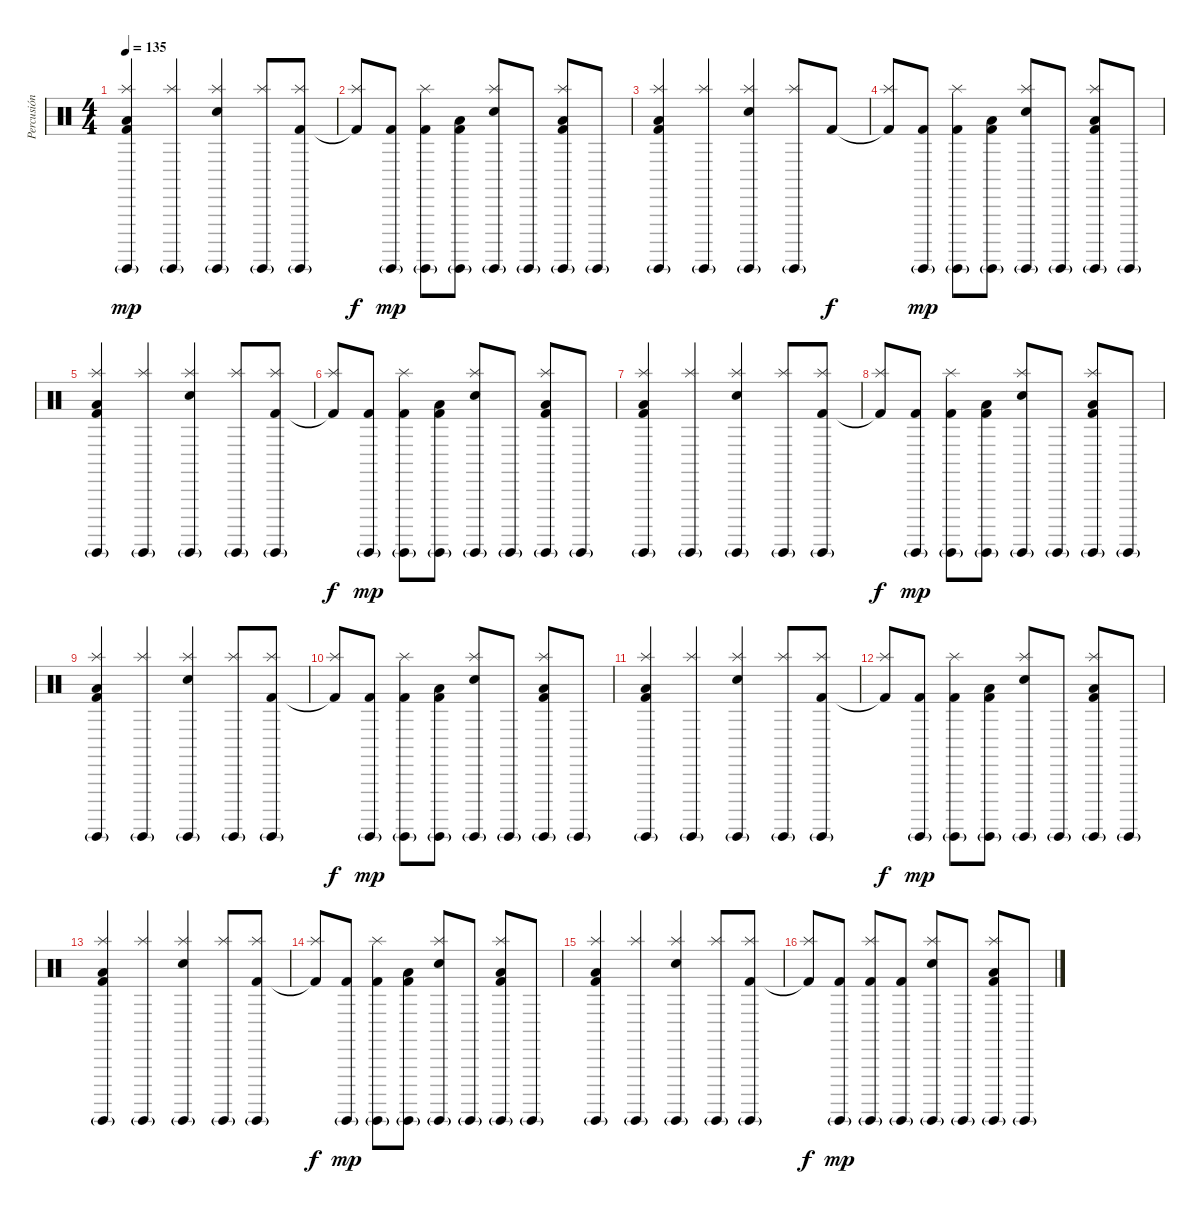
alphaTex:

\track ("Percusión" "Percusión") {instrument percussion}
\staff {score}
\articulation defaults
\ts (4 4)
\tempo 135
\clef neutral
\ks c
("Kick (hit) 2" "Guiro (hit)"{g} "Splash (hit)" "Low Floor Tom (hit)").4{dy mp volume 11} ("Splash (hit)" "Guiro (hit)"{g}).4 ("Snare (hit) 2" "Splash (hit)" "Guiro (hit)"{g}).4 ("Splash (hit)" "Guiro (hit)"{g}).8 ("Kick (hit) 2" "Splash (hit)" "Guiro (hit)"{g}).8 |
("Kick (hit) 2"{t} "Splash (hit)").8{dy f} ("Kick (hit) 2" "Guiro (hit)"{g}).8{dy mp} ("Kick (hit) 2" "Guiro (hit)"{g} "Splash (hit)").8 ("Kick (hit) 2" "Guiro (hit)"{g} "Low Floor Tom (hit)").8 ("Snare (hit) 2" "Guiro (hit)"{g} "Splash (hit)").8 "Guiro (hit)"{g}.8 ("Kick (hit) 2" "Guiro (hit)"{g} "Splash (hit)" "Low Floor Tom (hit)").8 "Guiro (hit)"{g}.8 |
("Kick (hit) 2" "Guiro (hit)"{g} "Splash (hit)" "Low Floor Tom (hit)").4 ("Splash (hit)" "Guiro (hit)"{g}).4 ("Snare (hit) 2" "Splash (hit)" "Guiro (hit)"{g}).4 ("Splash (hit)" "Guiro (hit)"{g}).8 "Kick (hit) 2".8{dy f} |
("Kick (hit) 2"{t} "Splash (hit)").8 ("Kick (hit) 2" "Guiro (hit)"{g}).8{dy mp} ("Kick (hit) 2" "Guiro (hit)"{g} "Splash (hit)").8 ("Kick (hit) 2" "Guiro (hit)"{g} "Low Floor Tom (hit)").8 ("Snare (hit) 2" "Guiro (hit)"{g} "Splash (hit)").8 "Guiro (hit)"{g}.8 ("Kick (hit) 2" "Guiro (hit)"{g} "Splash (hit)" "Low Floor Tom (hit)").8 "Guiro (hit)"{g}.8 |
("Kick (hit) 2" "Guiro (hit)"{g} "Splash (hit)" "Low Floor Tom (hit)").4 ("Splash (hit)" "Guiro (hit)"{g}).4 ("Snare (hit) 2" "Splash (hit)" "Guiro (hit)"{g}).4 ("Splash (hit)" "Guiro (hit)"{g}).8 ("Kick (hit) 2" "Splash (hit)" "Guiro (hit)"{g}).8 |
("Kick (hit) 2"{t} "Splash (hit)").8{dy f} ("Kick (hit) 2" "Guiro (hit)"{g}).8{dy mp} ("Kick (hit) 2" "Guiro (hit)"{g} "Splash (hit)").8 ("Kick (hit) 2" "Guiro (hit)"{g} "Low Floor Tom (hit)").8 ("Snare (hit) 2" "Guiro (hit)"{g} "Splash (hit)").8 "Guiro (hit)"{g}.8 ("Kick (hit) 2" "Guiro (hit)"{g} "Splash (hit)" "Low Floor Tom (hit)").8 "Guiro (hit)"{g}.8 |
("Kick (hit) 2" "Guiro (hit)"{g} "Splash (hit)" "Low Floor Tom (hit)").4 ("Splash (hit)" "Guiro (hit)"{g}).4 ("Snare (hit) 2" "Splash (hit)" "Guiro (hit)"{g}).4 ("Splash (hit)" "Guiro (hit)"{g}).8 ("Kick (hit) 2" "Splash (hit)" "Guiro (hit)"{g}).8 |
("Kick (hit) 2"{t} "Splash (hit)").8{dy f} ("Kick (hit) 2" "Guiro (hit)"{g}).8{dy mp} ("Kick (hit) 2" "Guiro (hit)"{g} "Splash (hit)").8 ("Kick (hit) 2" "Guiro (hit)"{g} "Low Floor Tom (hit)").8 ("Snare (hit) 2" "Guiro (hit)"{g} "Splash (hit)").8 "Guiro (hit)"{g}.8 ("Kick (hit) 2" "Guiro (hit)"{g} "Splash (hit)" "Low Floor Tom (hit)").8 "Guiro (hit)"{g}.8 |
("Kick (hit) 2" "Guiro (hit)"{g} "Splash (hit)" "Low Floor Tom (hit)").4 ("Splash (hit)" "Guiro (hit)"{g}).4 ("Snare (hit) 2" "Splash (hit)" "Guiro (hit)"{g}).4 ("Splash (hit)" "Guiro (hit)"{g}).8 ("Kick (hit) 2" "Splash (hit)" "Guiro (hit)"{g}).8 |
("Kick (hit) 2"{t} "Splash (hit)").8{dy f} ("Kick (hit) 2" "Guiro (hit)"{g}).8{dy mp} ("Kick (hit) 2" "Guiro (hit)"{g} "Splash (hit)").8 ("Kick (hit) 2" "Guiro (hit)"{g} "Low Floor Tom (hit)").8 ("Snare (hit) 2" "Guiro (hit)"{g} "Splash (hit)").8 "Guiro (hit)"{g}.8 ("Kick (hit) 2" "Guiro (hit)"{g} "Splash (hit)" "Low Floor Tom (hit)").8 "Guiro (hit)"{g}.8 |
("Kick (hit) 2" "Guiro (hit)"{g} "Splash (hit)" "Low Floor Tom (hit)").4 ("Splash (hit)" "Guiro (hit)"{g}).4 ("Snare (hit) 2" "Splash (hit)" "Guiro (hit)"{g}).4 ("Splash (hit)" "Guiro (hit)"{g}).8 ("Kick (hit) 2" "Splash (hit)" "Guiro (hit)"{g}).8 |
("Kick (hit) 2"{t} "Splash (hit)").8{dy f} ("Kick (hit) 2" "Guiro (hit)"{g}).8{dy mp} ("Kick (hit) 2" "Guiro (hit)"{g} "Splash (hit)").8 ("Kick (hit) 2" "Guiro (hit)"{g} "Low Floor Tom (hit)").8 ("Snare (hit) 2" "Guiro (hit)"{g} "Splash (hit)").8 "Guiro (hit)"{g}.8 ("Kick (hit) 2" "Guiro (hit)"{g} "Splash (hit)" "Low Floor Tom (hit)").8 "Guiro (hit)"{g}.8 |
("Kick (hit) 2" "Guiro (hit)"{g} "Splash (hit)" "Low Floor Tom (hit)").4 ("Splash (hit)" "Guiro (hit)"{g}).4 ("Snare (hit) 2" "Splash (hit)" "Guiro (hit)"{g}).4 ("Splash (hit)" "Guiro (hit)"{g}).8 ("Kick (hit) 2" "Splash (hit)" "Guiro (hit)"{g}).8 |
("Kick (hit) 2"{t} "Splash (hit)").8{dy f} ("Kick (hit) 2" "Guiro (hit)"{g}).8{dy mp} ("Kick (hit) 2" "Guiro (hit)"{g} "Splash (hit)").8 ("Kick (hit) 2" "Guiro (hit)"{g} "Low Floor Tom (hit)").8 ("Snare (hit) 2" "Guiro (hit)"{g} "Splash (hit)").8 "Guiro (hit)"{g}.8 ("Kick (hit) 2" "Guiro (hit)"{g} "Splash (hit)" "Low Floor Tom (hit)").8 "Guiro (hit)"{g}.8 |
("Kick (hit) 2" "Guiro (hit)"{g} "Splash (hit)" "Low Floor Tom (hit)").4 ("Splash (hit)" "Guiro (hit)"{g}).4 ("Snare (hit) 2" "Splash (hit)" "Guiro (hit)"{g}).4 ("Splash (hit)" "Guiro (hit)"{g}).8 ("Kick (hit) 2" "Splash (hit)" "Guiro (hit)"{g}).8 |
("Kick (hit) 2"{t} "Splash (hit)").8{dy f} ("Kick (hit) 2" "Guiro (hit)"{g}).8{dy mp} ("Kick (hit) 2" "Guiro (hit)"{g} "Splash (hit)").8 ("Kick (hit) 2" "Guiro (hit)"{g}).8 ("Snare (hit) 2" "Guiro (hit)"{g} "Splash (hit)").8 "Guiro (hit)"{g}.8 ("Kick (hit) 2" "Guiro (hit)"{g} "Splash (hit)" "Low Floor Tom (hit)").8 "Guiro (hit)"{g}.8
